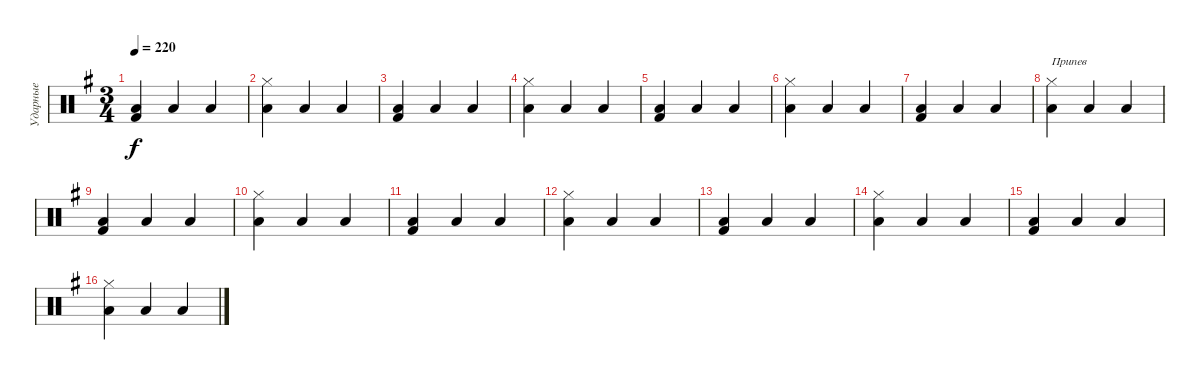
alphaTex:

\track ("Ударные" "Ударные") {instrument percussion}
\staff {score}
\articulation defaults
\ts (3 4)
\tempo 220
\clef neutral
\ks eminor
("Kick (hit) 2" "Low Tom (hit)").4{dy f} "Low Tom (hit)".4 "Low Tom (hit)".4 |
("Hi-Hat (closed)" "Low Tom (hit)").4 "Low Tom (hit)".4 "Low Tom (hit)".4 |
("Kick (hit) 2" "Low Tom (hit)").4 "Low Tom (hit)".4 "Low Tom (hit)".4 |
("Hi-Hat (closed)" "Low Tom (hit)").4 "Low Tom (hit)".4 "Low Tom (hit)".4 |
("Kick (hit) 2" "Low Tom (hit)").4 "Low Tom (hit)".4 "Low Tom (hit)".4 |
("Hi-Hat (closed)" "Low Tom (hit)").4 "Low Tom (hit)".4 "Low Tom (hit)".4 |
("Kick (hit) 2" "Low Tom (hit)").4 "Low Tom (hit)".4 "Low Tom (hit)".4 |
("Hi-Hat (closed)" "Low Tom (hit)").4{txt "Припев"} "Low Tom (hit)".4 "Low Tom (hit)".4 |
("Kick (hit) 2" "Low Tom (hit)").4 "Low Tom (hit)".4 "Low Tom (hit)".4 |
("Hi-Hat (closed)" "Low Tom (hit)").4 "Low Tom (hit)".4 "Low Tom (hit)".4 |
("Kick (hit) 2" "Low Tom (hit)").4 "Low Tom (hit)".4 "Low Tom (hit)".4 |
("Hi-Hat (closed)" "Low Tom (hit)").4 "Low Tom (hit)".4 "Low Tom (hit)".4 |
("Kick (hit) 2" "Low Tom (hit)").4 "Low Tom (hit)".4 "Low Tom (hit)".4 |
("Hi-Hat (closed)" "Low Tom (hit)").4 "Low Tom (hit)".4 "Low Tom (hit)".4 |
("Kick (hit) 2" "Low Tom (hit)").4 "Low Tom (hit)".4 "Low Tom (hit)".4 |
("Hi-Hat (closed)" "Low Tom (hit)").4 "Low Tom (hit)".4 "Low Tom (hit)".4
